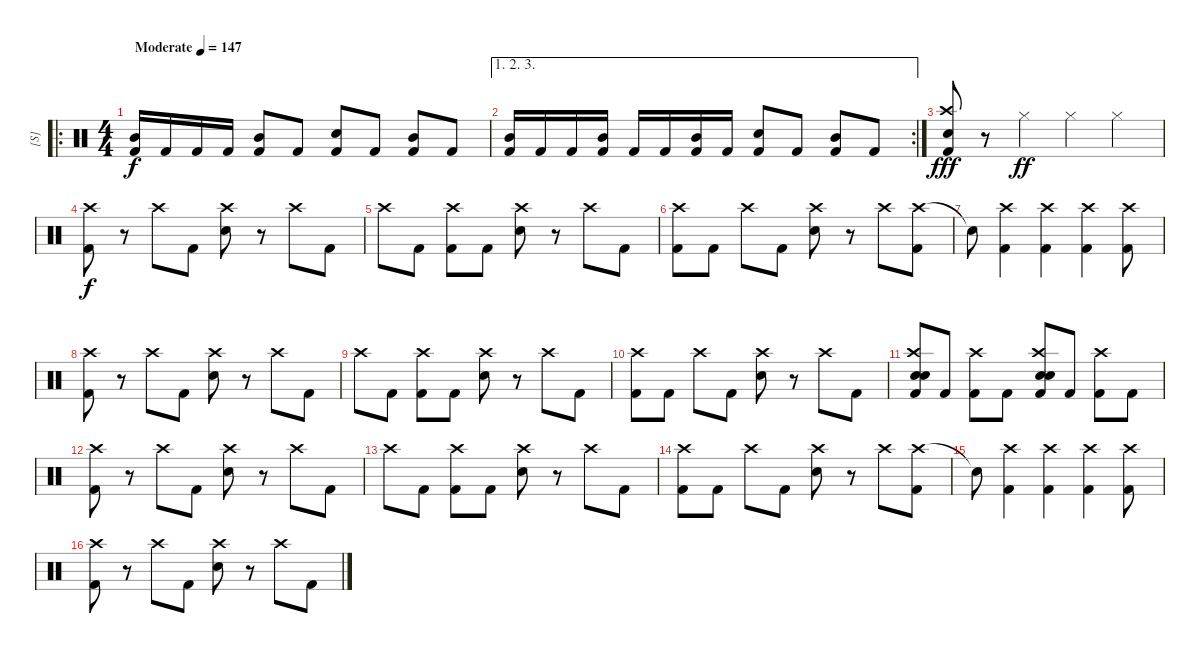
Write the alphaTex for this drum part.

\track ("[S]" "[S]") {instrument percussion}
\staff {score}
\articulation defaults
\ro
\ts (4 4)
\tempo (147 "Moderate")
\clef neutral
\ks c
("Mid Tom (hit)" "Kick (hit) 2").16{dy f} "Kick (hit) 2".16 "Kick (hit) 2".16 "Kick (hit) 2".16 ("Mid Tom (hit)" "Kick (hit) 2").8 "Kick (hit) 2".8 ("Snare (hit) 2" "Kick (hit) 2").8 "Kick (hit) 2".8 ("Mid Tom (hit)" "Kick (hit) 2").8 "Kick (hit) 2".8 |
\ae (1 2 3)
\rc 2
("Mid Tom (hit)" "Kick (hit) 2").16 "Kick (hit) 2".16 "Kick (hit) 2".16 ("Mid Tom (hit)" "Kick (hit) 2").16 "Kick (hit) 2".16 "Kick (hit) 2".16 ("Mid Tom (hit)" "Kick (hit) 2").16 "Kick (hit) 2".16 ("Snare (hit) 2" "Kick (hit) 2").8 "Kick (hit) 2".8 ("Mid Tom (hit)" "Kick (hit) 2").8 "Kick (hit) 2".8 |
("Crash high (hit)" "Electric Snare (hit)" "Kick (hit) 2").8{dy fff} r.8 "Hi-Hat (closed)".4{dy ff} "Hi-Hat (closed)".4 "Hi-Hat (closed)".4 |
("Crash high (hit)" "Kick (hit) 2").8{dy f} r.8 "Crash high (hit)".8 "Kick (hit) 2".8 ("Crash high (hit)" "Electric Snare (hit)").8 r.8 "Crash high (hit)".8 "Kick (hit) 2".8 |
"Crash high (hit)".8 "Kick (hit) 2".8 ("Crash high (hit)" "Kick (hit) 2").8 "Kick (hit) 2".8 ("Crash high (hit)" "Electric Snare (hit)").8 r.8 "Crash high (hit)".8 "Kick (hit) 2".8 |
("Crash high (hit)" "Kick (hit) 2").8 "Kick (hit) 2".8 "Crash high (hit)".8 "Kick (hit) 2".8 ("Crash high (hit)" "Electric Snare (hit)").8 r.8 "Crash high (hit)".8 ("Crash high (hit)" "Kick (hit) 2").8 |
"Snare (hit)"{t}.8 ("Crash high (hit)" "Kick (hit) 2").4 ("Crash high (hit)" "Kick (hit) 2").4 ("Crash high (hit)" "Kick (hit) 2").4 ("Crash high (hit)" "Kick (hit) 2").8 |
("Crash high (hit)" "Kick (hit) 2").8 r.8 "Crash high (hit)".8 "Kick (hit) 2".8 ("Crash high (hit)" "Electric Snare (hit)").8 r.8 "Crash high (hit)".8 "Kick (hit) 2".8 |
"Crash high (hit)".8 "Kick (hit) 2".8 ("Crash high (hit)" "Kick (hit) 2").8 "Kick (hit) 2".8 ("Crash high (hit)" "Electric Snare (hit)").8 r.8 "Crash high (hit)".8 "Kick (hit) 2".8 |
("Crash high (hit)" "Kick (hit) 2").8 "Kick (hit) 2".8 "Crash high (hit)".8 "Kick (hit) 2".8 ("Crash high (hit)" "Electric Snare (hit)").8 r.8 "Crash high (hit)".8 "Kick (hit) 2".8 |
("Crash high (hit)" "Electric Snare (hit)" "Snare (hit) 2" "Kick (hit) 2").8 "Kick (hit) 2".8 ("Crash high (hit)" "Kick (hit) 2").8 "Kick (hit) 2".8 ("Crash high (hit)" "Electric Snare (hit)" "Snare (hit) 2" "Kick (hit) 2").8 "Kick (hit) 2".8 ("Crash high (hit)" "Kick (hit) 2").8 "Kick (hit) 2".8 |
("Crash high (hit)" "Kick (hit) 2").8 r.8 "Crash high (hit)".8 "Kick (hit) 2".8 ("Crash high (hit)" "Electric Snare (hit)").8 r.8 "Crash high (hit)".8 "Kick (hit) 2".8 |
"Crash high (hit)".8 "Kick (hit) 2".8 ("Crash high (hit)" "Kick (hit) 2").8 "Kick (hit) 2".8 ("Crash high (hit)" "Electric Snare (hit)").8 r.8 "Crash high (hit)".8 "Kick (hit) 2".8 |
("Crash high (hit)" "Kick (hit) 2").8 "Kick (hit) 2".8 "Crash high (hit)".8 "Kick (hit) 2".8 ("Crash high (hit)" "Electric Snare (hit)").8 r.8 "Crash high (hit)".8 ("Crash high (hit)" "Kick (hit) 2").8 |
"Snare (hit)"{t}.8 ("Crash high (hit)" "Kick (hit) 2").4 ("Crash high (hit)" "Kick (hit) 2").4 ("Crash high (hit)" "Kick (hit) 2").4 ("Crash high (hit)" "Kick (hit) 2").8 |
("Crash high (hit)" "Kick (hit) 2").8 r.8 "Crash high (hit)".8 "Kick (hit) 2".8 ("Crash high (hit)" "Electric Snare (hit)").8 r.8 "Crash high (hit)".8 "Kick (hit) 2".8
